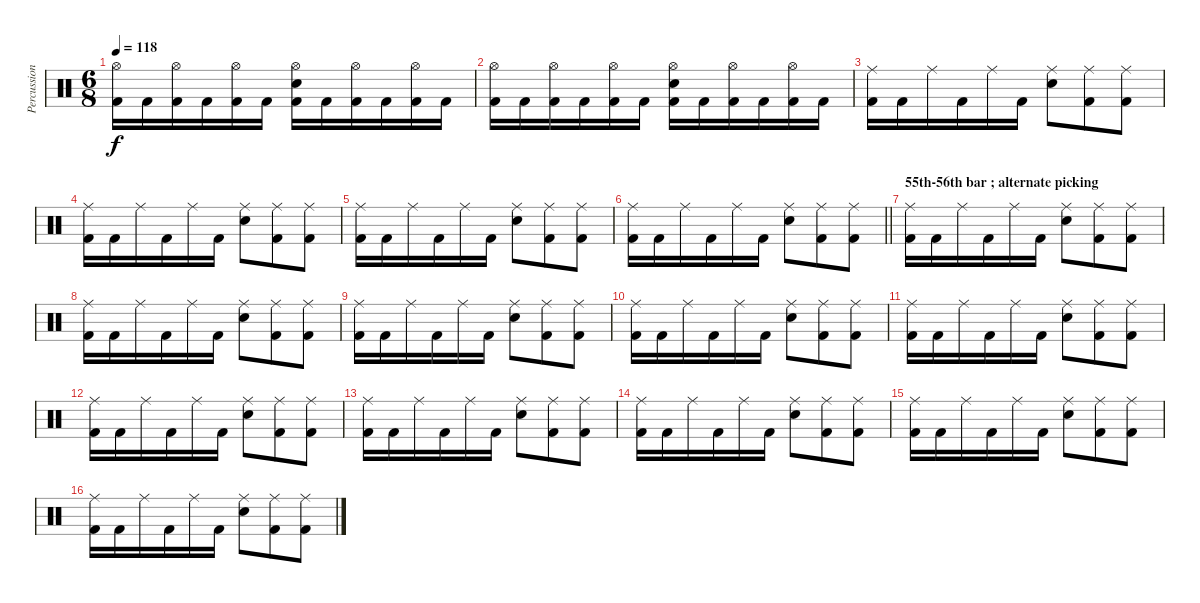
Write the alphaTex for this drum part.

\track ("Percussion" "Percussion") {instrument percussion}
\staff {score}
\articulation defaults
\ts (6 8)
\tempo 118
\clef neutral
\ks c
("Hi-Hat (open)" "Kick (hit) 2").16{dy f} "Kick (hit) 2".16 ("Hi-Hat (open)" "Kick (hit) 2").16 "Kick (hit) 2".16 ("Hi-Hat (open)" "Kick (hit) 2").16 "Kick (hit) 2".16 ("Hi-Hat (open)" "Electric Snare (hit)" "Kick (hit) 2").16 "Kick (hit) 2".16 ("Hi-Hat (open)" "Kick (hit) 2").16 "Kick (hit) 2".16 ("Hi-Hat (open)" "Kick (hit) 2").16 "Kick (hit) 2".16 |
("Hi-Hat (open)" "Kick (hit) 2").16 "Kick (hit) 2".16 ("Hi-Hat (open)" "Kick (hit) 2").16 "Kick (hit) 2".16 ("Hi-Hat (open)" "Kick (hit) 2").16 "Kick (hit) 2".16 ("Hi-Hat (open)" "Electric Snare (hit)" "Kick (hit) 2").16 "Kick (hit) 2".16 ("Hi-Hat (open)" "Kick (hit) 2").16 "Kick (hit) 2".16 ("Hi-Hat (open)" "Kick (hit) 2").16 "Kick (hit) 2".16 |
("Ride (middle)" "Kick (hit) 2").16 "Kick (hit) 2".16 "Ride (middle)".16 "Kick (hit) 2".16 "Ride (middle)".16 "Kick (hit) 2".16 ("Ride (middle)" "Electric Snare (hit)").8 ("Ride (middle)" "Kick (hit) 2").8 ("Ride (middle)" "Kick (hit) 2").8 |
("Ride (middle)" "Kick (hit) 2").16 "Kick (hit) 2".16 "Ride (middle)".16 "Kick (hit) 2".16 "Ride (middle)".16 "Kick (hit) 2".16 ("Ride (middle)" "Electric Snare (hit)").8 ("Ride (middle)" "Kick (hit) 2").8 ("Ride (middle)" "Kick (hit) 2").8 |
("Ride (middle)" "Kick (hit) 2").16 "Kick (hit) 2".16 "Ride (middle)".16 "Kick (hit) 2".16 "Ride (middle)".16 "Kick (hit) 2".16 ("Ride (middle)" "Electric Snare (hit)").8 ("Ride (middle)" "Kick (hit) 2").8 ("Ride (middle)" "Kick (hit) 2").8 |
\barLineRight lightlight
("Ride (middle)" "Kick (hit) 2").16 "Kick (hit) 2".16 "Ride (middle)".16 "Kick (hit) 2".16 "Ride (middle)".16 "Kick (hit) 2".16 ("Ride (middle)" "Electric Snare (hit)").8 ("Ride (middle)" "Kick (hit) 2").8 ("Ride (middle)" "Kick (hit) 2").8 |
\section ("" "55th-56th bar ; alternate picking")
("Ride (middle)" "Kick (hit) 2").16 "Kick (hit) 2".16 "Ride (middle)".16 "Kick (hit) 2".16 "Ride (middle)".16 "Kick (hit) 2".16 ("Ride (middle)" "Electric Snare (hit)").8 ("Ride (middle)" "Kick (hit) 2").8 ("Ride (middle)" "Kick (hit) 2").8 |
("Ride (middle)" "Kick (hit) 2").16 "Kick (hit) 2".16 "Ride (middle)".16 "Kick (hit) 2".16 "Ride (middle)".16 "Kick (hit) 2".16 ("Ride (middle)" "Electric Snare (hit)").8 ("Ride (middle)" "Kick (hit) 2").8 ("Ride (middle)" "Kick (hit) 2").8 |
("Ride (middle)" "Kick (hit) 2").16 "Kick (hit) 2".16 "Ride (middle)".16 "Kick (hit) 2".16 "Ride (middle)".16 "Kick (hit) 2".16 ("Ride (middle)" "Electric Snare (hit)").8 ("Ride (middle)" "Kick (hit) 2").8 ("Ride (middle)" "Kick (hit) 2").8 |
("Ride (middle)" "Kick (hit) 2").16 "Kick (hit) 2".16 "Ride (middle)".16 "Kick (hit) 2".16 "Ride (middle)".16 "Kick (hit) 2".16 ("Ride (middle)" "Electric Snare (hit)").8 ("Ride (middle)" "Kick (hit) 2").8 ("Ride (middle)" "Kick (hit) 2").8 |
("Ride (middle)" "Kick (hit) 2").16 "Kick (hit) 2".16 "Ride (middle)".16 "Kick (hit) 2".16 "Ride (middle)".16 "Kick (hit) 2".16 ("Ride (middle)" "Electric Snare (hit)").8 ("Ride (middle)" "Kick (hit) 2").8 ("Ride (middle)" "Kick (hit) 2").8 |
("Ride (middle)" "Kick (hit) 2").16 "Kick (hit) 2".16 "Ride (middle)".16 "Kick (hit) 2".16 "Ride (middle)".16 "Kick (hit) 2".16 ("Ride (middle)" "Electric Snare (hit)").8 ("Ride (middle)" "Kick (hit) 2").8 ("Ride (middle)" "Kick (hit) 2").8 |
("Ride (middle)" "Kick (hit) 2").16 "Kick (hit) 2".16 "Ride (middle)".16 "Kick (hit) 2".16 "Ride (middle)".16 "Kick (hit) 2".16 ("Ride (middle)" "Electric Snare (hit)").8 ("Ride (middle)" "Kick (hit) 2").8 ("Ride (middle)" "Kick (hit) 2").8 |
("Ride (middle)" "Kick (hit) 2").16 "Kick (hit) 2".16 "Ride (middle)".16 "Kick (hit) 2".16 "Ride (middle)".16 "Kick (hit) 2".16 ("Ride (middle)" "Electric Snare (hit)").8 ("Ride (middle)" "Kick (hit) 2").8 ("Ride (middle)" "Kick (hit) 2").8 |
("Ride (middle)" "Kick (hit) 2").16 "Kick (hit) 2".16 "Ride (middle)".16 "Kick (hit) 2".16 "Ride (middle)".16 "Kick (hit) 2".16 ("Ride (middle)" "Electric Snare (hit)").8 ("Ride (middle)" "Kick (hit) 2").8 ("Ride (middle)" "Kick (hit) 2").8 |
("Ride (middle)" "Kick (hit) 2").16 "Kick (hit) 2".16 "Ride (middle)".16 "Kick (hit) 2".16 "Ride (middle)".16 "Kick (hit) 2".16 ("Ride (middle)" "Electric Snare (hit)").8 ("Ride (middle)" "Kick (hit) 2").8 ("Ride (middle)" "Kick (hit) 2").8
